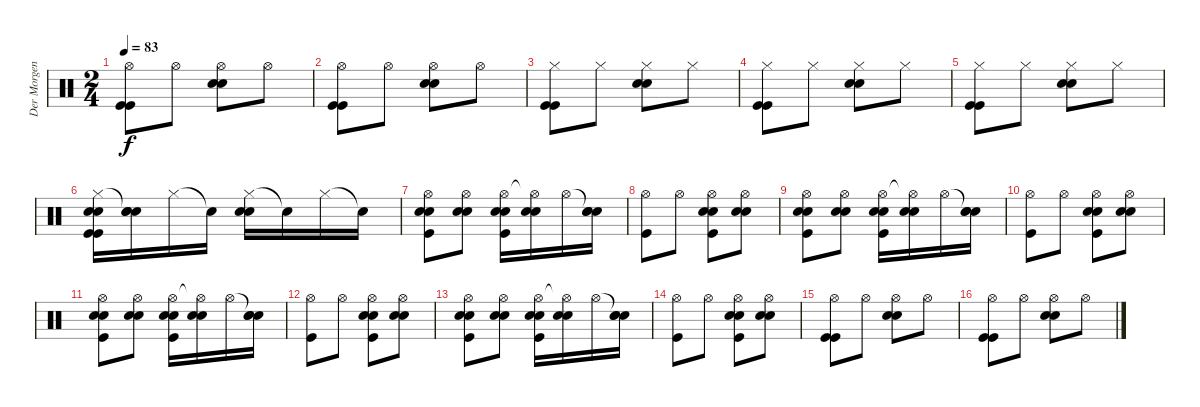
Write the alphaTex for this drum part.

\track ("Der Morgenstern" "Der Morgen") {instrument percussion}
\staff {score}
\articulation defaults
\ts (2 4)
\tempo 83
\clef neutral
\ks c
("Hi-Hat (open)" "Kick (hit)" "Kick (hit)").8{dy f} "Hi-Hat (open)".8 ("Hi-Hat (open)" "Electric Snare (hit)" "Electric Snare (hit)").8 "Hi-Hat (open)".8 |
("Hi-Hat (open)" "Kick (hit)" "Kick (hit)").8 "Hi-Hat (open)".8 ("Hi-Hat (open)" "Electric Snare (hit)" "Electric Snare (hit)").8 "Hi-Hat (open)".8 |
("Hi-Hat (closed)" "Kick (hit)" "Kick (hit)").8 "Hi-Hat (closed)".8 ("Hi-Hat (closed)" "Electric Snare (hit)" "Electric Snare (hit)").8 "Hi-Hat (closed)".8 |
("Hi-Hat (closed)" "Kick (hit)" "Kick (hit)").8 "Hi-Hat (closed)".8 ("Hi-Hat (closed)" "Electric Snare (hit)" "Electric Snare (hit)").8 "Hi-Hat (closed)".8 |
("Hi-Hat (closed)" "Kick (hit)" "Kick (hit)").8 "Hi-Hat (closed)".8 ("Hi-Hat (closed)" "Electric Snare (hit)" "Electric Snare (hit)").8 "Hi-Hat (closed)".8 |
("Hi-Hat (closed)" "Electric Snare (hit)" "Electric Snare (hit)" "Kick (hit)" "Kick (hit)").16 ("Snare (hit)"{t} "Electric Snare (hit)" "Electric Snare (hit)").16 "Hi-Hat (closed)".16 "Snare (hit)"{t}.16 ("Hi-Hat (closed)" "Electric Snare (hit)" "Electric Snare (hit)").16 "Snare (hit)"{t}.16 "Hi-Hat (closed)".16 "Snare (hit)"{t}.16 |
("Hi-Hat (open)" "Electric Snare (hit)" "Electric Snare (hit)" "Kick (hit)").8 ("Hi-Hat (open)" "Electric Snare (hit)" "Electric Snare (hit)").8 ("Hi-Hat (open)" "Electric Snare (hit)" "Electric Snare (hit)" "Kick (hit)").16 ("Hi-Hat (open)"{t} "Electric Snare (hit)" "Electric Snare (hit)").16 "Hi-Hat (open)".16 ("Snare (hit)"{t} "Electric Snare (hit)" "Electric Snare (hit)").16 |
("Hi-Hat (open)" "Kick (hit)").8 "Hi-Hat (open)".8 ("Hi-Hat (open)" "Electric Snare (hit)" "Electric Snare (hit)" "Kick (hit)").8 ("Hi-Hat (open)" "Electric Snare (hit)" "Electric Snare (hit)").8 |
("Hi-Hat (open)" "Electric Snare (hit)" "Electric Snare (hit)" "Kick (hit)").8 ("Hi-Hat (open)" "Electric Snare (hit)" "Electric Snare (hit)").8 ("Hi-Hat (open)" "Electric Snare (hit)" "Electric Snare (hit)" "Kick (hit)").16 ("Hi-Hat (open)"{t} "Electric Snare (hit)" "Electric Snare (hit)").16 "Hi-Hat (open)".16 ("Snare (hit)"{t} "Electric Snare (hit)" "Electric Snare (hit)").16 |
("Hi-Hat (open)" "Kick (hit)").8 "Hi-Hat (open)".8 ("Hi-Hat (open)" "Electric Snare (hit)" "Electric Snare (hit)" "Kick (hit)").8 ("Hi-Hat (open)" "Electric Snare (hit)" "Electric Snare (hit)").8 |
("Hi-Hat (open)" "Electric Snare (hit)" "Electric Snare (hit)" "Kick (hit)").8 ("Hi-Hat (open)" "Electric Snare (hit)" "Electric Snare (hit)").8 ("Hi-Hat (open)" "Electric Snare (hit)" "Electric Snare (hit)" "Kick (hit)").16 ("Hi-Hat (open)"{t} "Electric Snare (hit)" "Electric Snare (hit)").16 "Hi-Hat (open)".16 ("Snare (hit)"{t} "Electric Snare (hit)" "Electric Snare (hit)").16 |
("Hi-Hat (open)" "Kick (hit)").8 "Hi-Hat (open)".8 ("Hi-Hat (open)" "Electric Snare (hit)" "Electric Snare (hit)" "Kick (hit)").8 ("Hi-Hat (open)" "Electric Snare (hit)" "Electric Snare (hit)").8 |
("Hi-Hat (open)" "Electric Snare (hit)" "Electric Snare (hit)" "Kick (hit)").8 ("Hi-Hat (open)" "Electric Snare (hit)" "Electric Snare (hit)").8 ("Hi-Hat (open)" "Electric Snare (hit)" "Electric Snare (hit)" "Kick (hit)").16 ("Hi-Hat (open)"{t} "Electric Snare (hit)" "Electric Snare (hit)").16 "Hi-Hat (open)".16 ("Snare (hit)"{t} "Electric Snare (hit)" "Electric Snare (hit)").16 |
("Hi-Hat (open)" "Kick (hit)").8 "Hi-Hat (open)".8 ("Hi-Hat (open)" "Electric Snare (hit)" "Electric Snare (hit)" "Kick (hit)").8 ("Hi-Hat (open)" "Electric Snare (hit)" "Electric Snare (hit)").8 |
("Hi-Hat (open)" "Kick (hit)" "Kick (hit)").8 "Hi-Hat (open)".8 ("Hi-Hat (open)" "Electric Snare (hit)" "Electric Snare (hit)").8 "Hi-Hat (open)".8 |
("Hi-Hat (open)" "Kick (hit)" "Kick (hit)").8 "Hi-Hat (open)".8 ("Hi-Hat (open)" "Electric Snare (hit)" "Electric Snare (hit)").8 "Hi-Hat (open)".8
